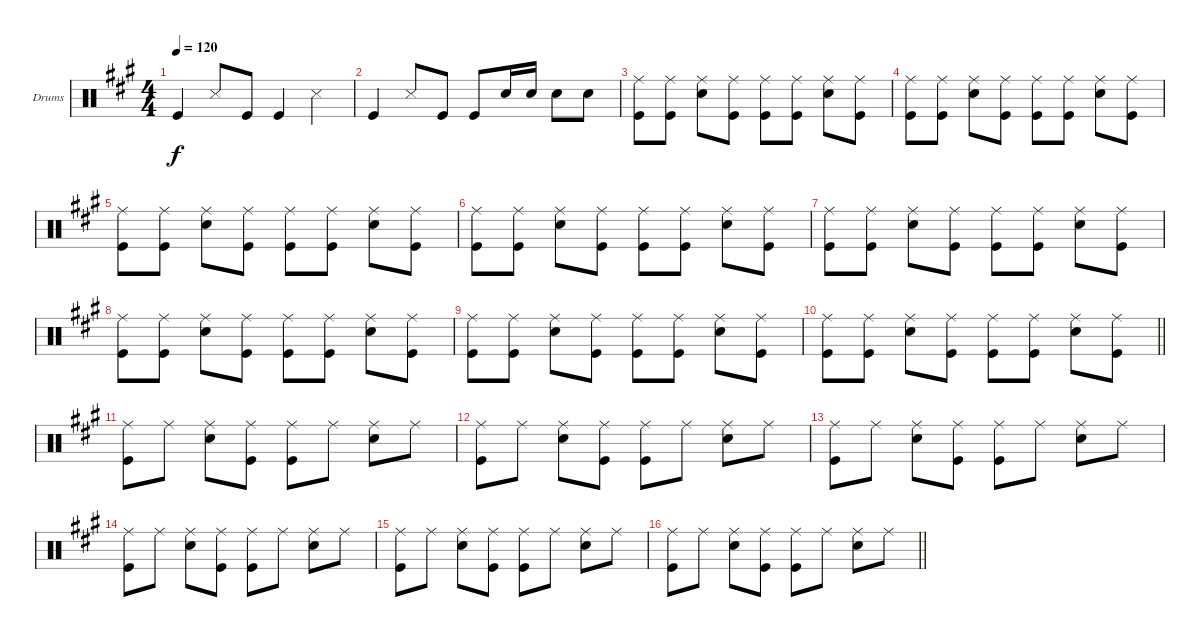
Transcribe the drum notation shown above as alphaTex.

\bracketExtendMode groupsimilarinstruments
\firstSystemTrackNameOrientation horizontal
\otherSystemsTrackNameOrientation horizontal
\track ("Drums Ringo" "Drums") {instrument percussion}
\staff {score}
\articulation defaults
\ts (4 4)
\tempo 120
\clef neutral
\ks a "Kick (hit)".4{dy f} "Snare (side stick) 3".8 "Kick (hit)".8 "Kick (hit)".4 "Snare (side stick) 3".4
|
"Kick (hit)".4 "Snare (side stick) 3".8 "Kick (hit)".8 "Kick (hit)".8 "Snare (hit) 2".16 "Snare (hit) 2".16 "Snare (hit) 2".8 "Snare (hit) 2".8 |
("Ride (middle)" "Kick (hit)").8 ("Ride (middle)" "Kick (hit)").8 ("Ride (middle)" "Snare (hit) 2").8 ("Ride (middle)" "Kick (hit)").8 ("Ride (middle)" "Kick (hit)").8 ("Ride (middle)" "Kick (hit)").8 ("Ride (middle)" "Snare (hit) 2").8 ("Ride (middle)" "Kick (hit)").8 |
("Ride (middle)" "Kick (hit)").8 ("Ride (middle)" "Kick (hit)").8 ("Ride (middle)" "Snare (hit) 2").8 ("Ride (middle)" "Kick (hit)").8 ("Ride (middle)" "Kick (hit)").8 ("Ride (middle)" "Kick (hit)").8 ("Ride (middle)" "Snare (hit) 2").8 ("Ride (middle)" "Kick (hit)").8 |
("Ride (middle)" "Kick (hit)").8 ("Ride (middle)" "Kick (hit)").8 ("Ride (middle)" "Snare (hit) 2").8 ("Ride (middle)" "Kick (hit)").8 ("Ride (middle)" "Kick (hit)").8 ("Ride (middle)" "Kick (hit)").8 ("Ride (middle)" "Snare (hit) 2").8 ("Ride (middle)" "Kick (hit)").8 |
("Ride (middle)" "Kick (hit)").8 ("Ride (middle)" "Kick (hit)").8 ("Ride (middle)" "Snare (hit) 2").8 ("Ride (middle)" "Kick (hit)").8 ("Ride (middle)" "Kick (hit)").8 ("Ride (middle)" "Kick (hit)").8 ("Ride (middle)" "Snare (hit) 2").8 ("Ride (middle)" "Kick (hit)").8 |
("Ride (middle)" "Kick (hit)").8 ("Ride (middle)" "Kick (hit)").8 ("Ride (middle)" "Snare (hit) 2").8 ("Ride (middle)" "Kick (hit)").8 ("Ride (middle)" "Kick (hit)").8 ("Ride (middle)" "Kick (hit)").8 ("Ride (middle)" "Snare (hit) 2").8 ("Ride (middle)" "Kick (hit)").8 |
("Ride (middle)" "Kick (hit)").8 ("Ride (middle)" "Kick (hit)").8 ("Ride (middle)" "Snare (hit) 2").8 ("Ride (middle)" "Kick (hit)").8 ("Ride (middle)" "Kick (hit)").8 ("Ride (middle)" "Kick (hit)").8 ("Ride (middle)" "Snare (hit) 2").8 ("Ride (middle)" "Kick (hit)").8 |
("Ride (middle)" "Kick (hit)").8 ("Ride (middle)" "Kick (hit)").8 ("Ride (middle)" "Snare (hit) 2").8 ("Ride (middle)" "Kick (hit)").8 ("Ride (middle)" "Kick (hit)").8 ("Ride (middle)" "Kick (hit)").8 ("Ride (middle)" "Snare (hit) 2").8 ("Ride (middle)" "Kick (hit)").8 |
\barLineRight lightlight
("Ride (middle)" "Kick (hit)").8 ("Ride (middle)" "Kick (hit)").8 ("Ride (middle)" "Snare (hit) 2").8 ("Ride (middle)" "Kick (hit)").8 ("Ride (middle)" "Kick (hit)").8 ("Ride (middle)" "Kick (hit)").8 ("Ride (middle)" "Snare (hit) 2").8 ("Ride (middle)" "Kick (hit)").8 |
("Ride (middle)" "Kick (hit)").8 "Ride (middle)".8 ("Ride (middle)" "Snare (hit) 2").8 ("Ride (middle)" "Kick (hit)").8 ("Ride (middle)" "Kick (hit)").8 "Ride (middle)".8 ("Ride (middle)" "Snare (hit) 2").8 "Ride (middle)".8 |
("Ride (middle)" "Kick (hit)").8 "Ride (middle)".8 ("Ride (middle)" "Snare (hit) 2").8 ("Ride (middle)" "Kick (hit)").8 ("Ride (middle)" "Kick (hit)").8 "Ride (middle)".8 ("Ride (middle)" "Snare (hit) 2").8 "Ride (middle)".8 |
("Ride (middle)" "Kick (hit)").8 "Ride (middle)".8 ("Ride (middle)" "Snare (hit) 2").8 ("Ride (middle)" "Kick (hit)").8 ("Ride (middle)" "Kick (hit)").8 "Ride (middle)".8 ("Ride (middle)" "Snare (hit) 2").8 "Ride (middle)".8 |
("Ride (middle)" "Kick (hit)").8 "Ride (middle)".8 ("Ride (middle)" "Snare (hit) 2").8 ("Ride (middle)" "Kick (hit)").8 ("Ride (middle)" "Kick (hit)").8 "Ride (middle)".8 ("Ride (middle)" "Snare (hit) 2").8 "Ride (middle)".8 |
("Ride (middle)" "Kick (hit)").8 "Ride (middle)".8 ("Ride (middle)" "Snare (hit) 2").8 ("Ride (middle)" "Kick (hit)").8 ("Ride (middle)" "Kick (hit)").8 "Ride (middle)".8 ("Ride (middle)" "Snare (hit) 2").8 "Ride (middle)".8 |
\barLineRight lightlight
("Ride (middle)" "Kick (hit)").8 "Ride (middle)".8 ("Ride (middle)" "Snare (hit) 2").8 ("Ride (middle)" "Kick (hit)").8 ("Ride (middle)" "Kick (hit)").8 "Ride (middle)".8 ("Ride (middle)" "Snare (hit) 2").8 "Ride (middle)".8
